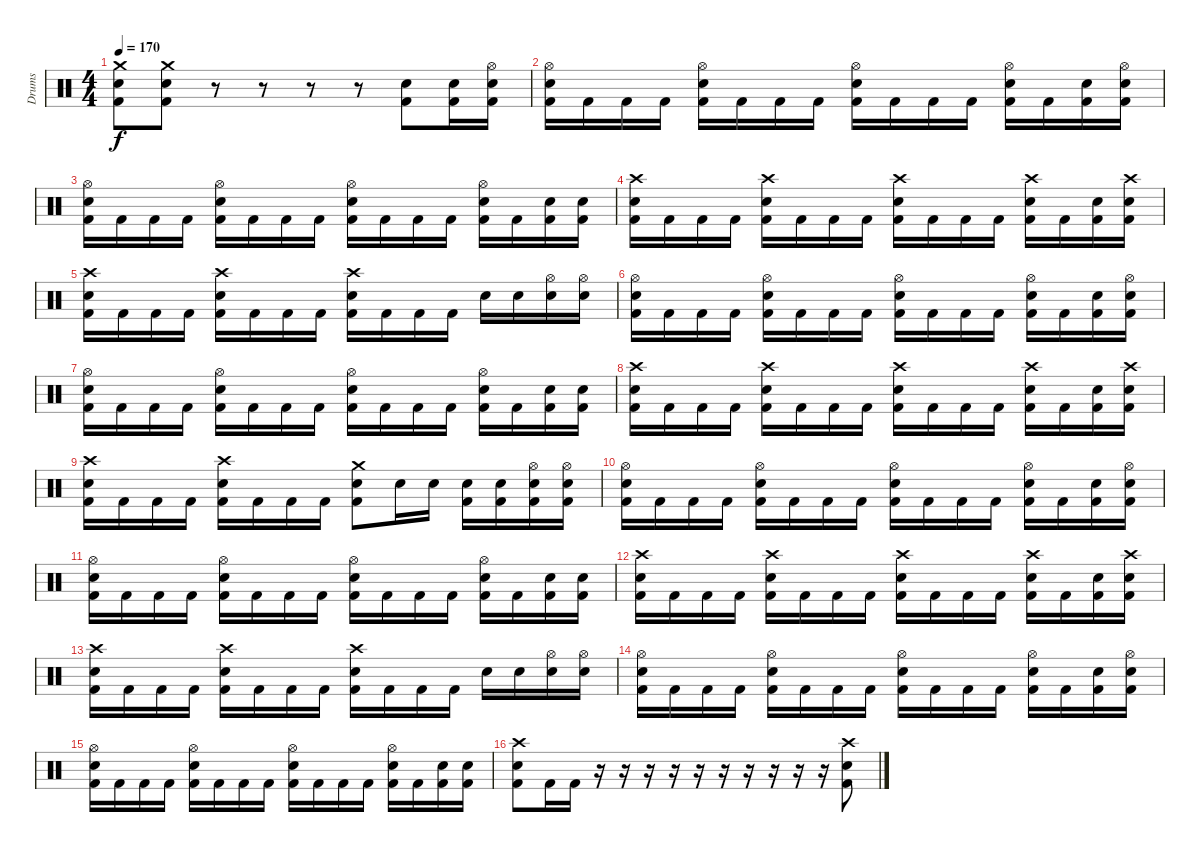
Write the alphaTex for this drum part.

\track ("Drums" "Drums") {instrument percussion}
\staff {score}
\articulation defaults
\ts (4 4)
\tempo 170
\clef neutral
\ks c
("Crash medium (hit)" "Snare (hit) 2" "Kick (hit) 2").8{dy f} ("Crash medium (hit)" "Snare (hit) 2" "Kick (hit) 2").8 r.8 r.8 r.8 r.8 ("Snare (hit) 2" "Kick (hit) 2").8 ("Snare (hit) 2" "Kick (hit) 2").16 ("Hi-Hat (open)" "Snare (hit) 2" "Kick (hit) 2").16 |
("Hi-Hat (open)" "Snare (hit) 2" "Kick (hit) 2").16 "Kick (hit) 2".16 "Kick (hit) 2".16 "Kick (hit) 2".16 ("Hi-Hat (open)" "Snare (hit) 2" "Kick (hit) 2").16 "Kick (hit) 2".16 "Kick (hit) 2".16 "Kick (hit) 2".16 ("Hi-Hat (open)" "Snare (hit) 2" "Kick (hit) 2").16 "Kick (hit) 2".16 "Kick (hit) 2".16 "Kick (hit) 2".16 ("Hi-Hat (open)" "Snare (hit) 2" "Kick (hit) 2").16 "Kick (hit) 2".16 ("Snare (hit) 2" "Kick (hit) 2").16 ("Hi-Hat (open)" "Snare (hit) 2" "Kick (hit) 2").16 |
("Hi-Hat (open)" "Snare (hit) 2" "Kick (hit) 2").16 "Kick (hit) 2".16 "Kick (hit) 2".16 "Kick (hit) 2".16 ("Hi-Hat (open)" "Snare (hit) 2" "Kick (hit) 2").16 "Kick (hit) 2".16 "Kick (hit) 2".16 "Kick (hit) 2".16 ("Hi-Hat (open)" "Snare (hit) 2" "Kick (hit) 2").16 "Kick (hit) 2".16 "Kick (hit) 2".16 "Kick (hit) 2".16 ("Hi-Hat (open)" "Snare (hit) 2" "Kick (hit) 2").16 "Kick (hit) 2".16 ("Snare (hit) 2" "Kick (hit) 2").16 ("Snare (hit) 2" "Kick (hit) 2").16 |
("Crash high (hit)" "Snare (hit) 2" "Kick (hit) 2").16 "Kick (hit) 2".16 "Kick (hit) 2".16 "Kick (hit) 2".16 ("Crash high (hit)" "Snare (hit) 2" "Kick (hit) 2").16 "Kick (hit) 2".16 "Kick (hit) 2".16 "Kick (hit) 2".16 ("Crash high (hit)" "Snare (hit) 2" "Kick (hit) 2").16 "Kick (hit) 2".16 "Kick (hit) 2".16 "Kick (hit) 2".16 ("Crash high (hit)" "Snare (hit) 2" "Kick (hit) 2").16 "Kick (hit) 2".16 ("Snare (hit) 2" "Kick (hit) 2").16 ("Crash high (hit)" "Snare (hit) 2" "Kick (hit) 2").16 |
("Crash high (hit)" "Snare (hit) 2" "Kick (hit) 2").16 "Kick (hit) 2".16 "Kick (hit) 2".16 "Kick (hit) 2".16 ("Crash high (hit)" "Snare (hit) 2" "Kick (hit) 2").16 "Kick (hit) 2".16 "Kick (hit) 2".16 "Kick (hit) 2".16 ("Crash high (hit)" "Snare (hit) 2" "Kick (hit) 2").16 "Kick (hit) 2".16 "Kick (hit) 2".16 "Kick (hit) 2".16 "Snare (hit) 2".16 "Snare (hit) 2".16 ("Hi-Hat (open)" "Snare (hit) 2").16 ("Hi-Hat (open)" "Snare (hit) 2").16 |
("Hi-Hat (open)" "Snare (hit) 2" "Kick (hit) 2").16 "Kick (hit) 2".16 "Kick (hit) 2".16 "Kick (hit) 2".16 ("Hi-Hat (open)" "Snare (hit) 2" "Kick (hit) 2").16 "Kick (hit) 2".16 "Kick (hit) 2".16 "Kick (hit) 2".16 ("Hi-Hat (open)" "Snare (hit) 2" "Kick (hit) 2").16 "Kick (hit) 2".16 "Kick (hit) 2".16 "Kick (hit) 2".16 ("Hi-Hat (open)" "Snare (hit) 2" "Kick (hit) 2").16 "Kick (hit) 2".16 ("Snare (hit) 2" "Kick (hit) 2").16 ("Hi-Hat (open)" "Snare (hit) 2" "Kick (hit) 2").16 |
("Hi-Hat (open)" "Snare (hit) 2" "Kick (hit) 2").16 "Kick (hit) 2".16 "Kick (hit) 2".16 "Kick (hit) 2".16 ("Hi-Hat (open)" "Snare (hit) 2" "Kick (hit) 2").16 "Kick (hit) 2".16 "Kick (hit) 2".16 "Kick (hit) 2".16 ("Hi-Hat (open)" "Snare (hit) 2" "Kick (hit) 2").16 "Kick (hit) 2".16 "Kick (hit) 2".16 "Kick (hit) 2".16 ("Hi-Hat (open)" "Snare (hit) 2" "Kick (hit) 2").16 "Kick (hit) 2".16 ("Snare (hit) 2" "Kick (hit) 2").16 ("Snare (hit) 2" "Kick (hit) 2").16 |
("Crash high (hit)" "Snare (hit) 2" "Kick (hit) 2").16 "Kick (hit) 2".16 "Kick (hit) 2".16 "Kick (hit) 2".16 ("Crash high (hit)" "Snare (hit) 2" "Kick (hit) 2").16 "Kick (hit) 2".16 "Kick (hit) 2".16 "Kick (hit) 2".16 ("Crash high (hit)" "Snare (hit) 2" "Kick (hit) 2").16 "Kick (hit) 2".16 "Kick (hit) 2".16 "Kick (hit) 2".16 ("Crash high (hit)" "Snare (hit) 2" "Kick (hit) 2").16 "Kick (hit) 2".16 ("Snare (hit) 2" "Kick (hit) 2").16 ("Crash high (hit)" "Snare (hit) 2" "Kick (hit) 2").16 |
("Crash high (hit)" "Snare (hit) 2" "Kick (hit) 2").16 "Kick (hit) 2".16 "Kick (hit) 2".16 "Kick (hit) 2".16 ("Crash high (hit)" "Snare (hit) 2" "Kick (hit) 2").16 "Kick (hit) 2".16 "Kick (hit) 2".16 "Kick (hit) 2".16 ("Crash medium (hit)" "Snare (hit) 2" "Kick (hit) 2").8 "Snare (hit) 2".16 "Snare (hit) 2".16 ("Snare (hit) 2" "Kick (hit) 2").16 ("Snare (hit) 2" "Kick (hit) 2").16 ("Hi-Hat (open)" "Snare (hit) 2" "Kick (hit) 2").16 ("Hi-Hat (open)" "Snare (hit) 2" "Kick (hit) 2").16 |
("Hi-Hat (open)" "Snare (hit) 2" "Kick (hit) 2").16 "Kick (hit) 2".16 "Kick (hit) 2".16 "Kick (hit) 2".16 ("Hi-Hat (open)" "Snare (hit) 2" "Kick (hit) 2").16 "Kick (hit) 2".16 "Kick (hit) 2".16 "Kick (hit) 2".16 ("Hi-Hat (open)" "Snare (hit) 2" "Kick (hit) 2").16 "Kick (hit) 2".16 "Kick (hit) 2".16 "Kick (hit) 2".16 ("Hi-Hat (open)" "Snare (hit) 2" "Kick (hit) 2").16 "Kick (hit) 2".16 ("Snare (hit) 2" "Kick (hit) 2").16 ("Hi-Hat (open)" "Snare (hit) 2" "Kick (hit) 2").16 |
("Hi-Hat (open)" "Snare (hit) 2" "Kick (hit) 2").16 "Kick (hit) 2".16 "Kick (hit) 2".16 "Kick (hit) 2".16 ("Hi-Hat (open)" "Snare (hit) 2" "Kick (hit) 2").16 "Kick (hit) 2".16 "Kick (hit) 2".16 "Kick (hit) 2".16 ("Hi-Hat (open)" "Snare (hit) 2" "Kick (hit) 2").16 "Kick (hit) 2".16 "Kick (hit) 2".16 "Kick (hit) 2".16 ("Hi-Hat (open)" "Snare (hit) 2" "Kick (hit) 2").16 "Kick (hit) 2".16 ("Snare (hit) 2" "Kick (hit) 2").16 ("Snare (hit) 2" "Kick (hit) 2").16 |
("Crash high (hit)" "Snare (hit) 2" "Kick (hit) 2").16 "Kick (hit) 2".16 "Kick (hit) 2".16 "Kick (hit) 2".16 ("Crash high (hit)" "Snare (hit) 2" "Kick (hit) 2").16 "Kick (hit) 2".16 "Kick (hit) 2".16 "Kick (hit) 2".16 ("Crash high (hit)" "Snare (hit) 2" "Kick (hit) 2").16 "Kick (hit) 2".16 "Kick (hit) 2".16 "Kick (hit) 2".16 ("Crash high (hit)" "Snare (hit) 2" "Kick (hit) 2").16 "Kick (hit) 2".16 ("Snare (hit) 2" "Kick (hit) 2").16 ("Crash high (hit)" "Snare (hit) 2" "Kick (hit) 2").16 |
("Crash high (hit)" "Snare (hit) 2" "Kick (hit) 2").16 "Kick (hit) 2".16 "Kick (hit) 2".16 "Kick (hit) 2".16 ("Crash high (hit)" "Snare (hit) 2" "Kick (hit) 2").16 "Kick (hit) 2".16 "Kick (hit) 2".16 "Kick (hit) 2".16 ("Crash high (hit)" "Snare (hit) 2" "Kick (hit) 2").16 "Kick (hit) 2".16 "Kick (hit) 2".16 "Kick (hit) 2".16 "Snare (hit) 2".16 "Snare (hit) 2".16 ("Hi-Hat (open)" "Snare (hit) 2").16 ("Hi-Hat (open)" "Snare (hit) 2").16 |
("Hi-Hat (open)" "Snare (hit) 2" "Kick (hit) 2").16 "Kick (hit) 2".16 "Kick (hit) 2".16 "Kick (hit) 2".16 ("Hi-Hat (open)" "Snare (hit) 2" "Kick (hit) 2").16 "Kick (hit) 2".16 "Kick (hit) 2".16 "Kick (hit) 2".16 ("Hi-Hat (open)" "Snare (hit) 2" "Kick (hit) 2").16 "Kick (hit) 2".16 "Kick (hit) 2".16 "Kick (hit) 2".16 ("Hi-Hat (open)" "Snare (hit) 2" "Kick (hit) 2").16 "Kick (hit) 2".16 ("Snare (hit) 2" "Kick (hit) 2").16 ("Hi-Hat (open)" "Snare (hit) 2" "Kick (hit) 2").16 |
("Hi-Hat (open)" "Snare (hit) 2" "Kick (hit) 2").16 "Kick (hit) 2".16 "Kick (hit) 2".16 "Kick (hit) 2".16 ("Hi-Hat (open)" "Snare (hit) 2" "Kick (hit) 2").16 "Kick (hit) 2".16 "Kick (hit) 2".16 "Kick (hit) 2".16 ("Hi-Hat (open)" "Snare (hit) 2" "Kick (hit) 2").16 "Kick (hit) 2".16 "Kick (hit) 2".16 "Kick (hit) 2".16 ("Hi-Hat (open)" "Snare (hit) 2" "Kick (hit) 2").16 "Kick (hit) 2".16 ("Snare (hit) 2" "Kick (hit) 2").16 ("Snare (hit) 2" "Kick (hit) 2").16 |
("Crash high (hit)" "Snare (hit) 2" "Kick (hit) 2").8 "Kick (hit) 2".16 "Kick (hit) 2".16 r.16 r.16 r.16 r.16 r.16 r.16 r.16 r.16 r.16 r.16 ("Crash high (hit)" "Snare (hit) 2" "Kick (hit) 2").8
